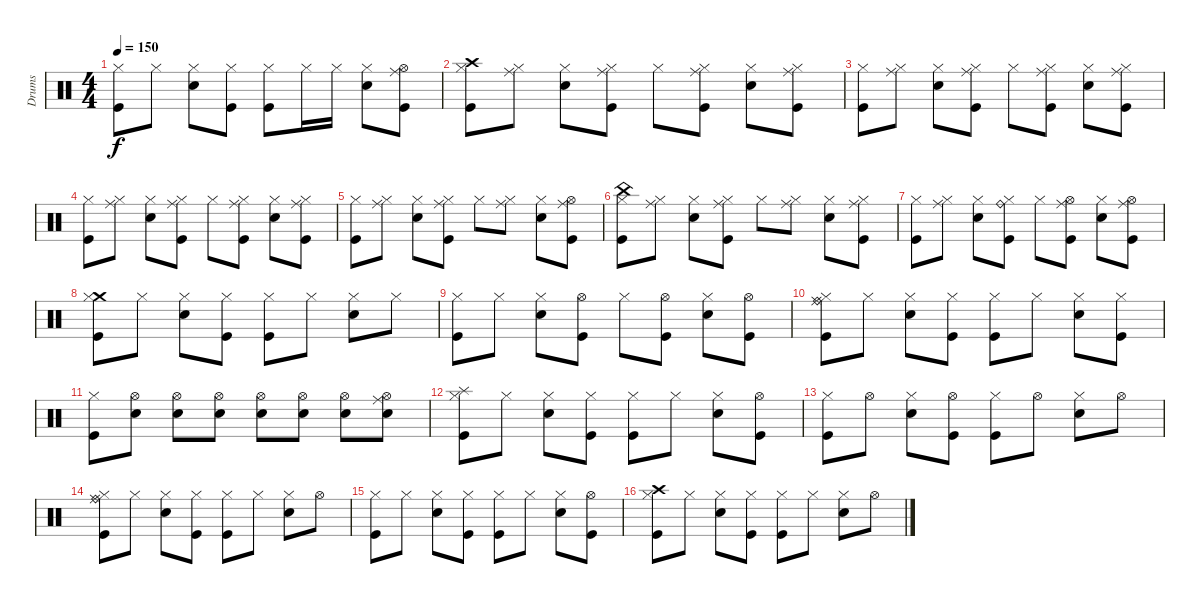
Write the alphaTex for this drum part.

\track ("Drums" "Drums") {instrument percussion}
\staff {score}
\articulation defaults
\ts (4 4)
\tempo 150
\clef neutral
\ks c
("Kick (hit)" "Hi-Hat (closed)").8{dy f} "Hi-Hat (closed)".8 ("Snare (hit) 2" "Hi-Hat (closed)").8 ("Kick (hit)" "Hi-Hat (closed)").8 ("Kick (hit)" "Hi-Hat (closed)").8 "Hi-Hat (closed)".16 "Hi-Hat (closed)".16 ("Snare (hit) 2" "Hi-Hat (closed)").8 ("Kick (hit)" "Hi-Hat (open)" "Ride (middle)").8 |
("Kick (hit)" "Hi-Hat (closed)" "Crash high (hit)").8 ("Hi-Hat (closed)" "Ride (middle)").8 ("Snare (hit) 2" "Hi-Hat (closed)").8 ("Ride (middle)" "Kick (hit)" "Hi-Hat (closed)").8 "Hi-Hat (closed)".8 ("Kick (hit)" "Hi-Hat (closed)" "Ride (middle)").8 ("Snare (hit) 2" "Hi-Hat (closed)").8 ("Kick (hit)" "Hi-Hat (closed)" "Ride (middle)").8 |
("Kick (hit)" "Hi-Hat (closed)").8 ("Hi-Hat (closed)" "Ride (middle)").8 ("Snare (hit) 2" "Hi-Hat (closed)").8 ("Kick (hit)" "Hi-Hat (closed)" "Ride (middle)").8 "Hi-Hat (closed)".8 ("Kick (hit)" "Hi-Hat (closed)" "Ride (middle)").8 ("Snare (hit) 2" "Hi-Hat (closed)").8 ("Ride (middle)" "Kick (hit)" "Hi-Hat (closed)").8 |
("Kick (hit)" "Hi-Hat (closed)").8 ("Hi-Hat (closed)" "Ride (middle)").8 ("Snare (hit) 2" "Hi-Hat (closed)").8 ("Kick (hit)" "Hi-Hat (closed)" "Ride (middle)").8 "Hi-Hat (closed)".8 ("Kick (hit)" "Hi-Hat (closed)" "Ride (middle)").8 ("Snare (hit) 2" "Hi-Hat (closed)").8 ("Hi-Hat (closed)" "Ride (middle)" "Kick (hit)").8 |
("Kick (hit)" "Hi-Hat (closed)").8 ("Hi-Hat (closed)" "Ride (middle)").8 ("Snare (hit) 2" "Hi-Hat (closed)").8 ("Kick (hit)" "Hi-Hat (closed)" "Ride (middle)").8 "Hi-Hat (closed)".8 ("Hi-Hat (closed)" "Ride (middle)").8 ("Snare (hit) 2" "Hi-Hat (closed)").8 ("Kick (hit)" "Hi-Hat (open)" "Ride (middle)").8 |
("Kick (hit)" "Hi-Hat (closed)" "China (hit)").8 ("Hi-Hat (closed)" "Ride (middle)").8 ("Snare (hit) 2" "Hi-Hat (closed)").8 ("Ride (middle)" "Kick (hit)" "Hi-Hat (closed)").8 "Hi-Hat (closed)".8 ("Hi-Hat (closed)" "Ride (middle)").8 ("Snare (hit) 2" "Hi-Hat (closed)").8 ("Hi-Hat (closed)" "Ride (middle)" "Kick (hit)").8 |
("Kick (hit)" "Hi-Hat (closed)").8 ("Hi-Hat (closed)" "Ride (middle)").8 ("Snare (hit) 2" "Hi-Hat (closed)").8 ("Kick (hit)" "Hi-Hat (closed)" "Ride (bell)").8 "Hi-Hat (closed)".8 ("Kick (hit)" "Hi-Hat (open)" "Ride (middle)").8 ("Snare (hit) 2" "Hi-Hat (closed)").8 ("Kick (hit)" "Hi-Hat (open)" "Ride (middle)").8 |
("Crash medium (hit)" "Kick (hit)" "Hi-Hat (closed)").8 "Hi-Hat (closed)".8 ("Snare (hit) 2" "Hi-Hat (closed)").8 ("Kick (hit)" "Hi-Hat (closed)").8 ("Kick (hit)" "Hi-Hat (closed)").8 "Hi-Hat (closed)".8 ("Snare (hit) 2" "Hi-Hat (closed)").8 "Hi-Hat (closed)".8 |
("Kick (hit)" "Hi-Hat (closed)").8 "Hi-Hat (closed)".8 ("Snare (hit) 2" "Hi-Hat (closed)").8 ("Kick (hit)" "Hi-Hat (open)").8 "Hi-Hat (closed)".8 ("Kick (hit)" "Hi-Hat (open)").8 ("Snare (hit) 2" "Hi-Hat (closed)").8 ("Kick (hit)" "Hi-Hat (open)").8 |
("Ride (bell)" "Ride (middle)" "Hi-Hat (closed)" "Kick (hit)").8 "Hi-Hat (closed)".8 ("Snare (hit) 2" "Hi-Hat (closed)").8 ("Kick (hit)" "Hi-Hat (closed)").8 ("Kick (hit)" "Hi-Hat (closed)").8 "Hi-Hat (closed)".8 ("Snare (hit) 2" "Hi-Hat (closed)").8 ("Kick (hit)" "Hi-Hat (closed)").8 |
("Kick (hit)" "Hi-Hat (closed)").8 ("Snare (hit) 2" "Hi-Hat (open)").8 ("Snare (hit) 2" "Hi-Hat (open)").8 ("Snare (hit) 2" "Hi-Hat (open)").8 ("Snare (hit) 2" "Hi-Hat (open)").8 ("Snare (hit) 2" "Hi-Hat (open)").8 ("Snare (hit) 2" "Hi-Hat (open)").8 ("Snare (hit) 2" "Hi-Hat (open)" "Ride (middle)").8 |
("Kick (hit)" "Hi-Hat (closed)" "Splash (hit)").8 "Hi-Hat (closed)".8 ("Snare (hit) 2" "Hi-Hat (closed)").8 ("Kick (hit)" "Hi-Hat (closed)").8 ("Kick (hit)" "Hi-Hat (closed)").8 "Hi-Hat (closed)".8 ("Snare (hit) 2" "Hi-Hat (closed)").8 ("Kick (hit)" "Hi-Hat (open)").8 |
("Kick (hit)" "Hi-Hat (closed)").8 "Hi-Hat (open)".8 ("Snare (hit) 2" "Hi-Hat (closed)").8 ("Kick (hit)" "Hi-Hat (open)").8 ("Kick (hit)" "Hi-Hat (closed)").8 "Hi-Hat (open)".8 ("Snare (hit) 2" "Hi-Hat (closed)").8 "Hi-Hat (open)".8 |
("Kick (hit)" "Ride (bell)" "Hi-Hat (closed)" "Ride (middle)").8 "Hi-Hat (closed)".8 ("Snare (hit) 2" "Hi-Hat (closed)").8 ("Kick (hit)" "Hi-Hat (closed)").8 ("Kick (hit)" "Hi-Hat (closed)").8 "Hi-Hat (closed)".8 ("Snare (hit) 2" "Hi-Hat (closed)").8 "Hi-Hat (open)".8 |
("Kick (hit)" "Hi-Hat (closed)").8 "Hi-Hat (closed)".8 ("Snare (hit) 2" "Hi-Hat (closed)").8 ("Kick (hit)" "Hi-Hat (closed)").8 ("Kick (hit)" "Hi-Hat (closed)").8 "Hi-Hat (closed)".8 ("Snare (hit) 2" "Hi-Hat (closed)").8 ("Kick (hit)" "Hi-Hat (open)").8 |
("Kick (hit)" "Hi-Hat (closed)" "Crash high (hit)").8 "Hi-Hat (closed)".8 ("Snare (hit) 2" "Hi-Hat (closed)").8 ("Kick (hit)" "Hi-Hat (closed)").8 ("Kick (hit)" "Hi-Hat (closed)").8 "Hi-Hat (closed)".8 ("Snare (hit) 2" "Hi-Hat (closed)").8 "Hi-Hat (open)".8
